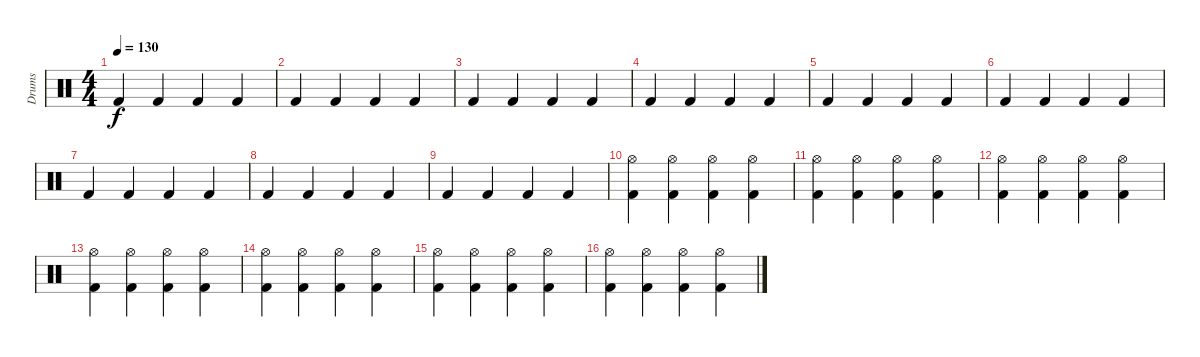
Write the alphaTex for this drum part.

\track ("Drums" "Drums") {instrument percussion}
\staff {score}
\articulation defaults
\ts (4 4)
\tempo 130
\clef neutral
\ks c "Kick (hit) 2".4{dy f} "Kick (hit) 2".4 "Kick (hit) 2".4 "Kick (hit) 2".4
|
"Kick (hit) 2".4 "Kick (hit) 2".4 "Kick (hit) 2".4 "Kick (hit) 2".4 |
"Kick (hit) 2".4 "Kick (hit) 2".4 "Kick (hit) 2".4 "Kick (hit) 2".4 |
"Kick (hit) 2".4 "Kick (hit) 2".4 "Kick (hit) 2".4 "Kick (hit) 2".4 |
"Kick (hit) 2".4 "Kick (hit) 2".4 "Kick (hit) 2".4 "Kick (hit) 2".4 |
"Kick (hit) 2".4 "Kick (hit) 2".4 "Kick (hit) 2".4 "Kick (hit) 2".4 |
"Kick (hit) 2".4 "Kick (hit) 2".4 "Kick (hit) 2".4 "Kick (hit) 2".4 |
"Kick (hit) 2".4 "Kick (hit) 2".4 "Kick (hit) 2".4 "Kick (hit) 2".4 |
"Kick (hit) 2".4 "Kick (hit) 2".4 "Kick (hit) 2".4 "Kick (hit) 2".4 |
("Hi-Hat (open)" "Kick (hit) 2").4 ("Hi-Hat (open)" "Kick (hit) 2").4 ("Hi-Hat (open)" "Kick (hit) 2").4 ("Hi-Hat (open)" "Kick (hit) 2").4 |
("Hi-Hat (open)" "Kick (hit) 2").4 ("Hi-Hat (open)" "Kick (hit) 2").4 ("Hi-Hat (open)" "Kick (hit) 2").4 ("Hi-Hat (open)" "Kick (hit) 2").4 |
("Hi-Hat (open)" "Kick (hit) 2").4 ("Hi-Hat (open)" "Kick (hit) 2").4 ("Hi-Hat (open)" "Kick (hit) 2").4 ("Hi-Hat (open)" "Kick (hit) 2").4 |
("Hi-Hat (open)" "Kick (hit) 2").4 ("Hi-Hat (open)" "Kick (hit) 2").4 ("Hi-Hat (open)" "Kick (hit) 2").4 ("Hi-Hat (open)" "Kick (hit) 2").4 |
("Hi-Hat (open)" "Kick (hit) 2").4 ("Hi-Hat (open)" "Kick (hit) 2").4 ("Hi-Hat (open)" "Kick (hit) 2").4 ("Hi-Hat (open)" "Kick (hit) 2").4 |
("Hi-Hat (open)" "Kick (hit) 2").4 ("Hi-Hat (open)" "Kick (hit) 2").4 ("Hi-Hat (open)" "Kick (hit) 2").4 ("Hi-Hat (open)" "Kick (hit) 2").4 |
("Hi-Hat (open)" "Kick (hit) 2").4 ("Hi-Hat (open)" "Kick (hit) 2").4 ("Hi-Hat (open)" "Kick (hit) 2").4 ("Hi-Hat (open)" "Kick (hit) 2").4
